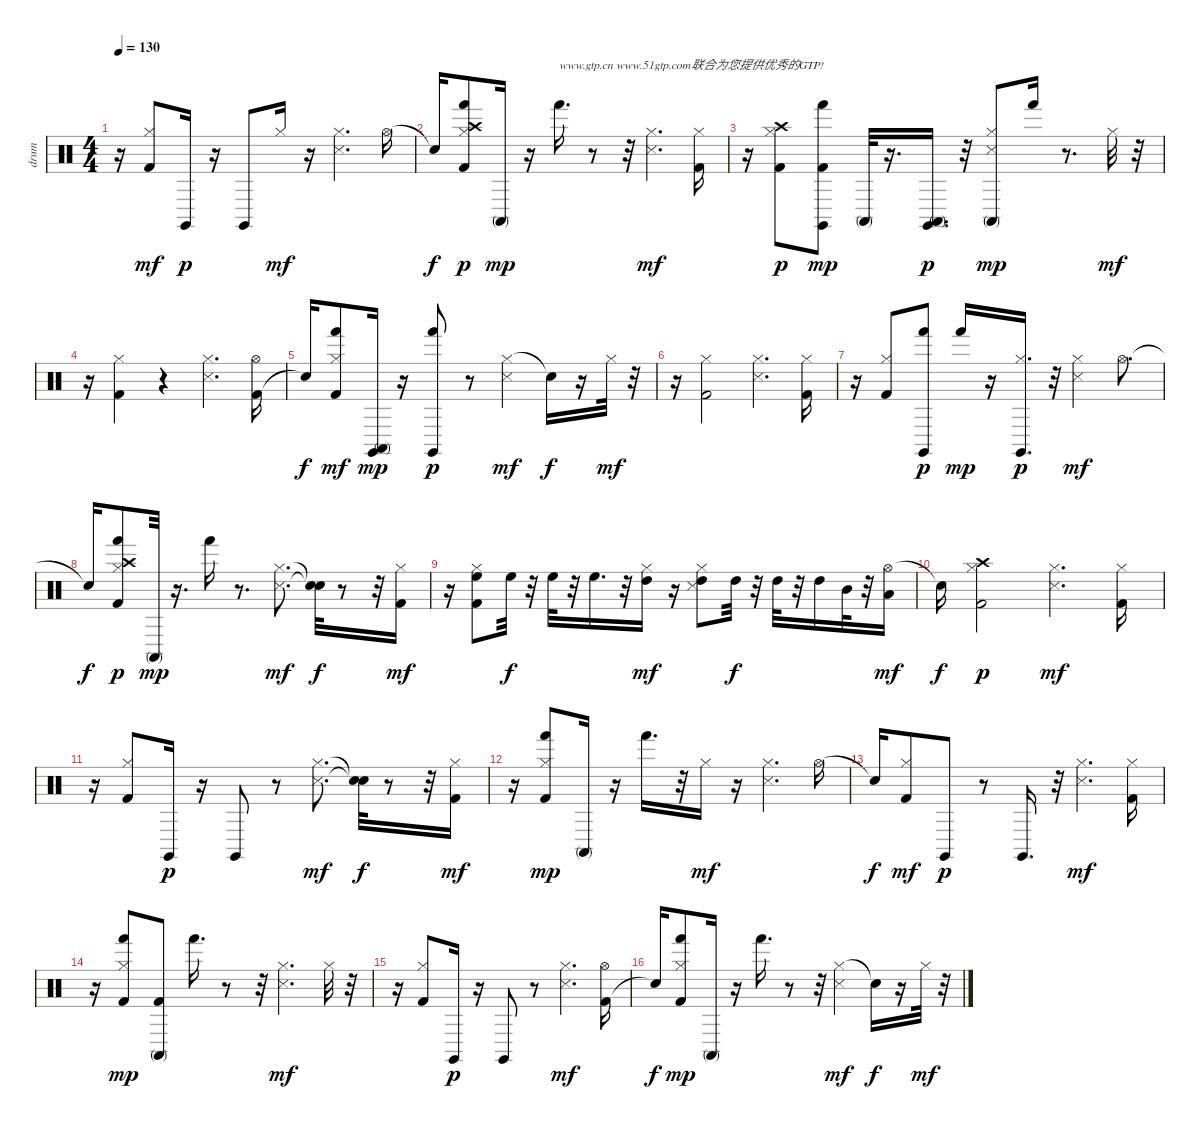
\track ("drum" "drum") {instrument percussion}
\staff {score}
\articulation defaults
\ts (4 4)
\tempo 130
\clef neutral
\ks c
r.16{dy mf} ("Kick (hit) 2" "Hi-Hat (closed)").8 "Claves (hit)".16{dy p} r.16 "Claves (hit)".8 "Hi-Hat (closed)".16{dy mf} r.16 ("Hi-Hat (closed)" "Snare (side stick) 3").4{d} "Hi-Hat (open)".16 |
"Snare (hit)"{t}.16{dy f} ("Hand (hit)" "Hi-Hat (closed)" "Kick (hit) 2" "Crash high (hit)").8{dy p} "Conga high (mute)".16{dy mp} r.16 "Hand (hit)".16{d txt "www.gtp.cn www.51gtp.com联合为您提供优秀的GTP!"} r.8 r.32 ("Hi-Hat (closed)" "Snare (side stick) 3").4{d dy mf} ("Kick (hit) 2" "Hi-Hat (closed)").16 |
r.16 ("Kick (hit) 2" "Hi-Hat (closed)" "Crash high (hit)").8{dy p} ("Kick (hit) 2" "Claves (hit)" "Hand (hit)").8{dy mp} "Conga high (mute)".32 r.16{d} ("Conga high (mute)" "Claves (hit)").16{d dy p} r.32 ("Hi-Hat (closed)" "Snare (side stick) 3" "Conga high (mute)").8{dy mp} "Hand (hit)".16 r.8{d} "Hi-Hat (closed)".32{dy mf} r.32 |
r.16 ("Kick (hit) 2" "Hi-Hat (closed)").4 r.4 ("Hi-Hat (closed)" "Snare (side stick) 3").4{d} ("Kick (hit) 2" "Hi-Hat (open)").16 |
"Snare (hit)"{t}.16{dy f} ("Kick (hit) 2" "Hand (hit)" "Hi-Hat (closed)").8{dy mf} ("Claves (hit)" "Conga high (mute)").16{dy mp} r.16 ("Hand (hit)" "Claves (hit)").8{dy p} r.8 ("Hi-Hat (closed)" "Snare (side stick) 3").4{dy mf} "Snare (hit)"{t}.16{dy f} r.16 "Hi-Hat (closed)".32{dy mf} r.32 |
r.16 ("Kick (hit) 2" "Hi-Hat (closed)").2 ("Hi-Hat (closed)" "Snare (side stick) 3").4{d} ("Kick (hit) 2" "Hi-Hat (closed)").16 |
r.16 ("Kick (hit) 2" "Hi-Hat (closed)").8 ("Hand (hit)" "Claves (hit)").8{dy p} "Hand (hit)".16{dy mp} r.16 ("Hi-Hat (closed)" "Claves (hit)").16{d dy p} r.32 ("Hi-Hat (closed)" "Snare (side stick) 3").4{dy mf} "Hi-Hat (open)".8{d} |
"Snare (hit)"{t}.16{dy f} ("Hand (hit)" "Hi-Hat (closed)" "Kick (hit) 2" "Crash high (hit)").8{dy p} "Conga high (mute)".32{dy mp} r.16{d} "Hand (hit)".16 r.8{d} ("Hi-Hat (closed)" "Snare (side stick) 3").8{d dy mf} ("Snare (hit)"{t} "Snare (hit)"{t}).32{dy f} r.8 r.32 ("Kick (hit) 2" "Hi-Hat (closed)").16{dy mf} |
r.16 ("High Floor Tom (hit)" "Hi-Hat (closed)" "Kick (hit) 2").8 "High Floor Tom (hit)".32{dy f} r.32 "High Floor Tom (hit)".32 r.32 "High Floor Tom (hit)".16{d} r.32 ("Hi-Hat (closed)" "High Tom (hit)").16{dy mf} r.16 ("High Tom (hit)" "Snare (side stick) 3" "Hi-Hat (closed)").8 "High Tom (hit)".32{dy f} r.32 "High Tom (hit)".32 r.32 "High Tom (hit)".16 "Mid Tom (hit)".32 r.32 ("Hi-Hat (open)" "Low Tom (hit)").16{dy mf} |
"Snare (hit)"{t}.16{dy f} ("Kick (hit) 2" "Hi-Hat (closed)" "Crash high (hit)").2{dy p} ("Hi-Hat (closed)" "Snare (side stick) 3").4{d dy mf} ("Kick (hit) 2" "Hi-Hat (closed)").16 |
r.16 ("Kick (hit) 2" "Hi-Hat (closed)").8 "Claves (hit)".16{dy p} r.16 "Claves (hit)".8 r.8 ("Hi-Hat (closed)" "Snare (side stick) 3").8{d dy mf} ("Snare (hit)"{t} "Snare (hit)"{t}).32{dy f} r.8 r.32 ("Kick (hit) 2" "Hi-Hat (closed)").16{dy mf} |
r.16 ("Kick (hit) 2" "Hi-Hat (closed)" "Hand (hit)").8{dy mp} "Conga high (mute)".16 r.16 "Hand (hit)".16{d} r.32 "Hi-Hat (closed)".16{dy mf} r.16 ("Hi-Hat (closed)" "Snare (side stick) 3").4{d} "Hi-Hat (open)".16 |
"Snare (hit)"{t}.16{dy f} ("Kick (hit) 2" "Hi-Hat (closed)").8{dy mf} "Claves (hit)".8{dy p} r.8 "Claves (hit)".16{d} r.32 ("Hi-Hat (closed)" "Snare (side stick) 3").4{d dy mf} ("Kick (hit) 2" "Hi-Hat (closed)").16 |
r.16 ("Kick (hit) 2" "Hi-Hat (closed)" "Hand (hit)").8{dy mp} ("Kick (hit) 2" "Conga high (mute)").8 "Hand (hit)".16{d} r.8 r.32 ("Hi-Hat (closed)" "Snare (side stick) 3").4{d dy mf} "Hi-Hat (closed)".32 r.32 |
r.16 ("Kick (hit) 2" "Hi-Hat (closed)").8 "Claves (hit)".16{dy p} r.16 "Claves (hit)".8 r.8 ("Hi-Hat (closed)" "Snare (side stick) 3").4{d dy mf} ("Kick (hit) 2" "Hi-Hat (open)").16 |
"Snare (hit)"{t}.16{dy f} ("Kick (hit) 2" "Hi-Hat (closed)" "Hand (hit)").8{dy mp} "Conga high (mute)".16 r.16 "Hand (hit)".16{d} r.8 r.32 ("Hi-Hat (closed)" "Snare (side stick) 3").4{dy mf} "Snare (hit)"{t}.16{dy f} r.16 "Hi-Hat (closed)".32{dy mf} r.32
